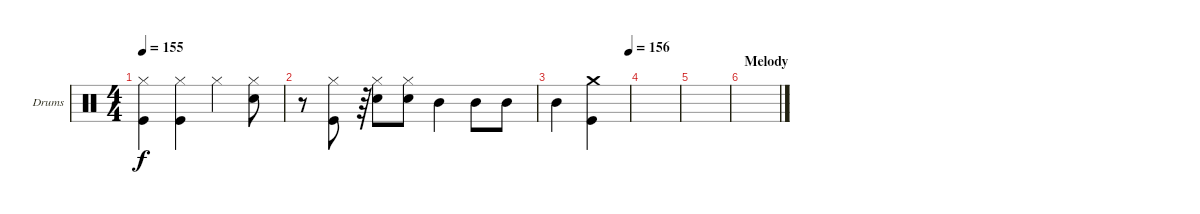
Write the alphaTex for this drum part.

\defaultSystemsLayout 4
\bracketExtendMode groupsimilarinstruments
\firstSystemTrackNameOrientation horizontal
\otherSystemsTrackNameOrientation horizontal
\track ("Drum" "Drums") {instrument percussion}
\staff {score}
\articulation defaults
\ts (4 4)
\tempo 155
\clef neutral
\ks c
("Hi-Hat (closed)" "Kick (hit)").4{dy f} ("Hi-Hat (closed)" "Kick (hit)").4 "Hi-Hat (closed)".4 ("Hi-Hat (closed)" "Snare (hit) 2").8 |
r.8 ("Hi-Hat (closed)" "Kick (hit)").8 r.64 ("Hi-Hat (closed)" "Snare (hit) 2").8 ("Hi-Hat (closed)" "Snare (hit) 2").8 "Mid Tom (hit)".4 "Mid Tom (hit)".8 "Mid Tom (hit)".8 |
\tempo (156 1)
"Mid Tom (hit)".4 ("Crash medium (hit)" "Kick (hit)").4 |
|
|
\section ("" "Melody")
